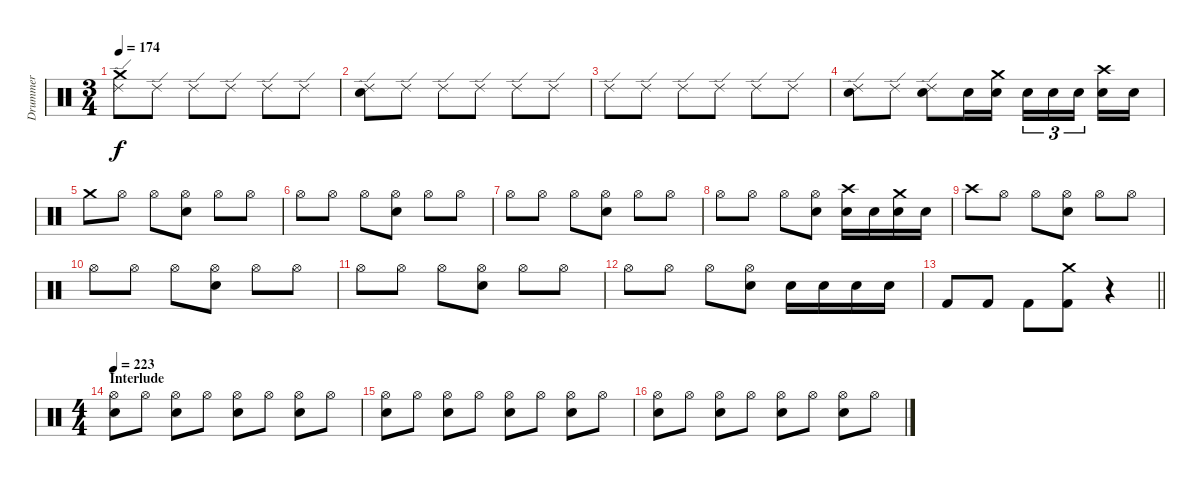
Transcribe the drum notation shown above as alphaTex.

\track ("Drummer" "Drummer") {instrument percussion}
\staff {score}
\articulation defaults
\ts (3 4)
\tempo 174
\clef neutral
\ks c
("Ride (edge) 2" "Crash medium (hit)").8{dy f} "Ride (edge) 2".8 "Ride (edge) 2".8 "Ride (edge) 2".8 "Ride (edge) 2".8 "Ride (edge) 2".8 |
("Ride (edge) 2" "Electric Snare (hit)").8 "Ride (edge) 2".8 "Ride (edge) 2".8 "Ride (edge) 2".8 "Ride (edge) 2".8 "Ride (edge) 2".8 |
"Ride (edge) 2".8 "Ride (edge) 2".8 "Ride (edge) 2".8 "Ride (edge) 2".8 "Ride (edge) 2".8 "Ride (edge) 2".8 |
("Ride (edge) 2" "Electric Snare (hit)").8 "Ride (edge) 2".8 ("Ride (edge) 2" "Electric Snare (hit)").8 "Electric Snare (hit)".16 ("Crash medium (hit)" "Electric Snare (hit)").16 "Electric Snare (hit)".16{tu (3 2)} "Electric Snare (hit)".16{tu (3 2)} "Electric Snare (hit)".16{tu (3 2) beam splitsecondary} ("Crash high (hit)" "Electric Snare (hit)").16 "Electric Snare (hit)".16 |
"Crash medium (hit)".8 "Hi-Hat (open)".8 "Hi-Hat (open)".8 ("Hi-Hat (open)" "Electric Snare (hit)").8 "Hi-Hat (open)".8 "Hi-Hat (open)".8 |
"Hi-Hat (open)".8 "Hi-Hat (open)".8 "Hi-Hat (open)".8 ("Hi-Hat (open)" "Electric Snare (hit)").8 "Hi-Hat (open)".8 "Hi-Hat (open)".8 |
"Hi-Hat (open)".8 "Hi-Hat (open)".8 "Hi-Hat (open)".8 ("Hi-Hat (open)" "Electric Snare (hit)").8 "Hi-Hat (open)".8 "Hi-Hat (open)".8 |
"Hi-Hat (open)".8 "Hi-Hat (open)".8 "Hi-Hat (open)".8 ("Hi-Hat (open)" "Electric Snare (hit)").8 ("Crash high (hit)" "Electric Snare (hit)").16 "Electric Snare (hit)".16 ("Crash medium (hit)" "Electric Snare (hit)").16 "Electric Snare (hit)".16 |
"Crash high (hit)".8 "Hi-Hat (open)".8 "Hi-Hat (open)".8 ("Hi-Hat (open)" "Electric Snare (hit)").8 "Hi-Hat (open)".8 "Hi-Hat (open)".8 |
"Hi-Hat (open)".8 "Hi-Hat (open)".8 "Hi-Hat (open)".8 ("Hi-Hat (open)" "Electric Snare (hit)").8 "Hi-Hat (open)".8 "Hi-Hat (open)".8 |
"Hi-Hat (open)".8 "Hi-Hat (open)".8 "Hi-Hat (open)".8 ("Hi-Hat (open)" "Electric Snare (hit)").8 "Hi-Hat (open)".8 "Hi-Hat (open)".8 |
"Hi-Hat (open)".8 "Hi-Hat (open)".8 "Hi-Hat (open)".8 ("Hi-Hat (open)" "Electric Snare (hit)").8 "Electric Snare (hit)".16 "Electric Snare (hit)".16 "Electric Snare (hit)".16 "Electric Snare (hit)".16 |
\barLineRight lightlight "Kick (hit) 2".8 "Kick (hit) 2".8 "Kick (hit) 2".8
("Crash medium (hit)" "Kick (hit) 2").8 r.4 |
\ts (4 4)
\section ("" "Interlude")
\tempo 223
("Hi-Hat (open)" "Electric Snare (hit)").8 "Hi-Hat (open)".8 ("Hi-Hat (open)" "Electric Snare (hit)").8 "Hi-Hat (open)".8 ("Hi-Hat (open)" "Electric Snare (hit)").8 "Hi-Hat (open)".8 ("Hi-Hat (open)" "Electric Snare (hit)").8 "Hi-Hat (open)".8 |
("Hi-Hat (open)" "Electric Snare (hit)").8 "Hi-Hat (open)".8 ("Hi-Hat (open)" "Electric Snare (hit)").8 "Hi-Hat (open)".8 ("Hi-Hat (open)" "Electric Snare (hit)").8 "Hi-Hat (open)".8 ("Hi-Hat (open)" "Electric Snare (hit)").8 "Hi-Hat (open)".8 |
("Hi-Hat (open)" "Electric Snare (hit)").8 "Hi-Hat (open)".8 ("Hi-Hat (open)" "Electric Snare (hit)").8 "Hi-Hat (open)".8 ("Hi-Hat (open)" "Electric Snare (hit)").8 "Hi-Hat (open)".8 ("Hi-Hat (open)" "Electric Snare (hit)").8 "Hi-Hat (open)".8
